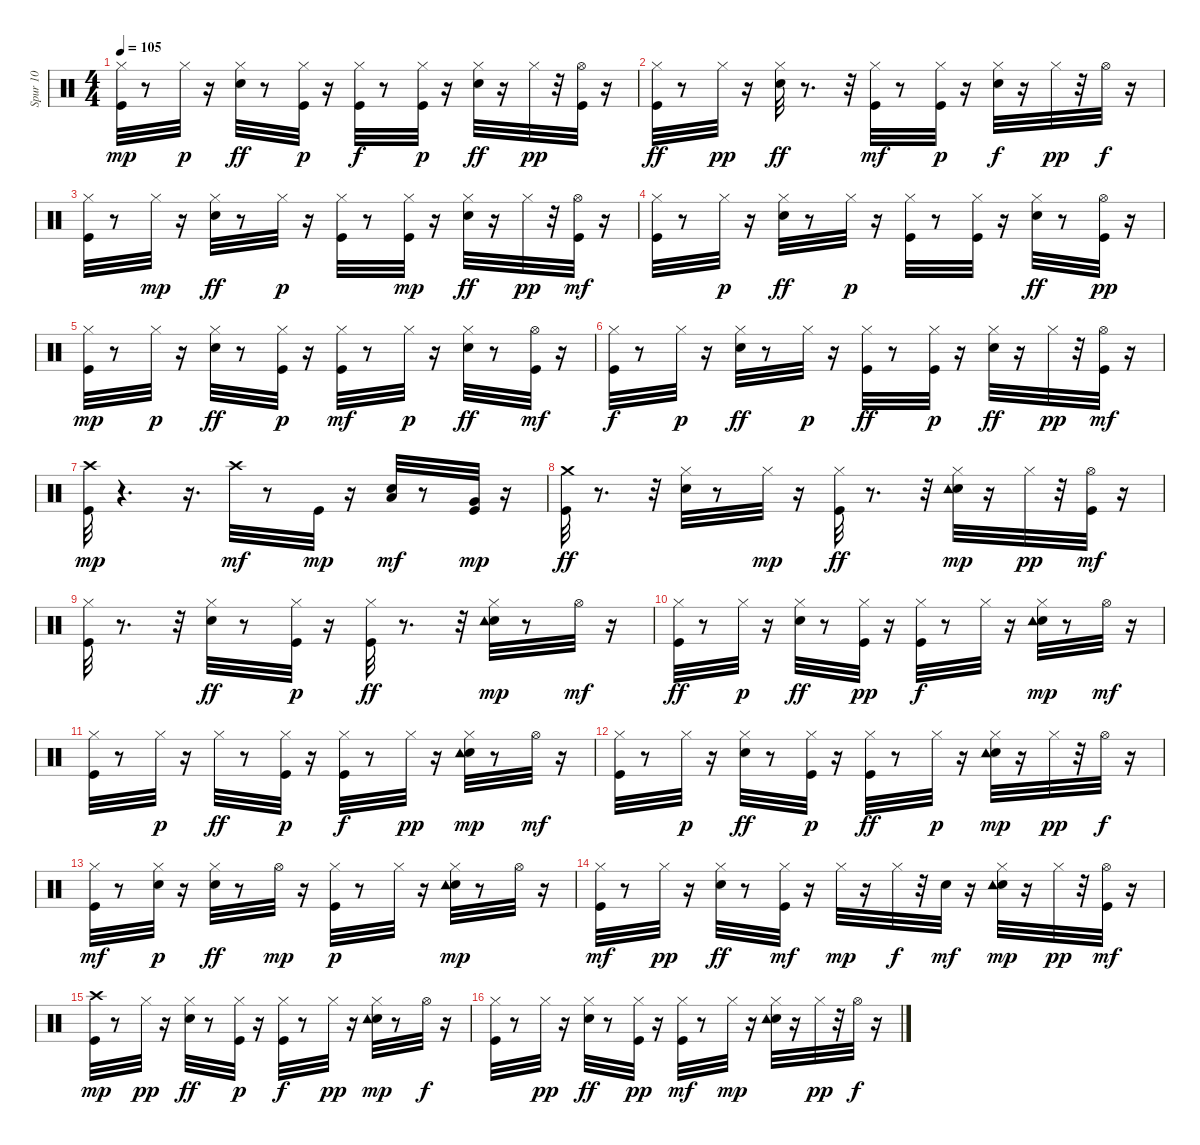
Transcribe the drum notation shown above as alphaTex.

\track ("Spur 10" "Spur 10") {instrument percussion}
\staff {score}
\articulation defaults
\ts (4 4)
\tempo 105
\clef neutral
\ks c
("Kick (hit)" "Hi-Hat (closed)").32{dy mp} r.8 "Hi-Hat (closed)".32{dy p} r.16 ("Snare (hit) 2" "Hi-Hat (closed)").32{dy ff} r.8 ("Kick (hit)" "Hi-Hat (closed)").32{dy p} r.16 ("Kick (hit)" "Hi-Hat (closed)").32{dy f} r.8 ("Kick (hit)" "Hi-Hat (closed)").32{dy p} r.16 ("Snare (hit) 2" "Hi-Hat (closed)").32{dy ff} r.16 "Hi-Hat (closed)".32{dy pp} r.32 ("Kick (hit)" "Hi-Hat (open)").32 r.16 |
("Kick (hit)" "Hi-Hat (closed)").32{dy ff} r.8 "Hi-Hat (closed)".32{dy pp} r.16 ("Snare (hit) 2" "Hi-Hat (closed)").32{dy ff} r.8{d} r.32 ("Kick (hit)" "Hi-Hat (closed)").32{dy mf} r.8 ("Kick (hit)" "Hi-Hat (closed)").32{dy p} r.16 ("Snare (hit) 2" "Hi-Hat (closed)").32{dy f} r.16 "Hi-Hat (closed)".32{dy pp} r.32 "Hi-Hat (open)".32{dy f} r.16 |
("Kick (hit)" "Hi-Hat (closed)").32 r.8 "Hi-Hat (closed)".32{dy mp} r.16 ("Snare (hit) 2" "Hi-Hat (closed)").32{dy ff} r.8 "Hi-Hat (closed)".32{dy p} r.16 ("Kick (hit)" "Hi-Hat (closed)").32 r.8 ("Kick (hit)" "Hi-Hat (closed)").32{dy mp} r.16 ("Snare (hit) 2" "Hi-Hat (closed)").32{dy ff} r.16 "Hi-Hat (closed)".32{dy pp} r.32 ("Kick (hit)" "Hi-Hat (open)").32{dy mf} r.16 |
("Kick (hit)" "Hi-Hat (closed)").32 r.8 "Hi-Hat (closed)".32{dy p} r.16 ("Snare (hit) 2" "Hi-Hat (closed)").32{dy ff} r.8 "Hi-Hat (closed)".32{dy p} r.16 ("Kick (hit)" "Hi-Hat (closed)").32 r.8 ("Kick (hit)" "Hi-Hat (closed)").32 r.16 ("Snare (hit) 2" "Hi-Hat (closed)").32{dy ff} r.8 ("Kick (hit)" "Hi-Hat (open)").32{dy pp} r.16 |
("Kick (hit)" "Hi-Hat (closed)").32{dy mp} r.8 "Hi-Hat (closed)".32{dy p} r.16 ("Snare (hit) 2" "Hi-Hat (closed)").32{dy ff} r.8 ("Kick (hit)" "Hi-Hat (closed)").32{dy p} r.16 ("Kick (hit)" "Hi-Hat (closed)").32{dy mf} r.8 "Hi-Hat (closed)".32{dy p} r.16 ("Snare (hit) 2" "Hi-Hat (closed)").32{dy ff} r.8 ("Kick (hit)" "Hi-Hat (open)").32{dy mf} r.16 |
("Kick (hit)" "Hi-Hat (closed)").32{dy f} r.8 "Hi-Hat (closed)".32{dy p} r.16 ("Snare (hit) 2" "Hi-Hat (closed)").32{dy ff} r.8 "Hi-Hat (closed)".32{dy p} r.16 ("Kick (hit)" "Hi-Hat (closed)").32{dy ff} r.8 ("Kick (hit)" "Hi-Hat (closed)").32{dy p} r.16 ("Snare (hit) 2" "Hi-Hat (closed)").32{dy ff} r.16 "Hi-Hat (closed)".32{dy pp} r.32 ("Kick (hit)" "Hi-Hat (open)").32{dy mf} r.16 |
("Kick (hit)" "Crash high (hit)").32{dy mp} r.4{d} r.16{d} "Crash high (hit)".32{dy mf} r.8 "Kick (hit)".32{dy mp} r.16 ("Snare (hit) 2" "Low Tom (hit)").32{dy mf} r.8 ("Kick (hit)" "Very Low Tom (hit)").32{dy mp} r.16 |
("Kick (hit)" "Crash medium (hit)").32{dy ff} r.8{d} r.32 ("Snare (hit) 2" "Hi-Hat (closed)").32 r.8 "Hi-Hat (closed)".32{dy mp} r.16 ("Kick (hit)" "Hi-Hat (closed)").32{dy ff} r.8{d} r.32 ("Snare (hit) 2" "Hi-Hat (closed)" "Tambourine (hit)").32{dy mp} r.16 "Hi-Hat (closed)".32{dy pp} r.32 ("Kick (hit)" "Hi-Hat (open)").32{dy mf} r.16 |
("Kick (hit)" "Hi-Hat (closed)").32 r.8{d} r.32 ("Snare (hit) 2" "Hi-Hat (closed)").32{dy ff} r.8 ("Kick (hit)" "Hi-Hat (closed)").32{dy p} r.16 ("Kick (hit)" "Hi-Hat (closed)").32{dy ff} r.8{d} r.32 ("Snare (hit) 2" "Hi-Hat (closed)" "Tambourine (hit)").32{dy mp} r.8 "Hi-Hat (open)".32{dy mf} r.16 |
("Kick (hit)" "Hi-Hat (closed)").32{dy ff} r.8 "Hi-Hat (closed)".32{dy p} r.16 ("Snare (hit) 2" "Hi-Hat (closed)").32{dy ff} r.8 ("Kick (hit)" "Hi-Hat (closed)").32{dy pp} r.16 ("Kick (hit)" "Hi-Hat (closed)").32{dy f} r.8 "Hi-Hat (closed)".32 r.16 ("Snare (hit) 2" "Hi-Hat (closed)" "Tambourine (hit)").32{dy mp} r.8 "Hi-Hat (open)".32{dy mf} r.16 |
("Kick (hit)" "Hi-Hat (closed)").32 r.8 "Hi-Hat (closed)".32{dy p} r.16 "Hi-Hat (closed)".32{dy ff} r.8 ("Kick (hit)" "Hi-Hat (closed)").32{dy p} r.16 ("Kick (hit)" "Hi-Hat (closed)").32{dy f} r.8 "Hi-Hat (closed)".32{dy pp} r.16 ("Snare (hit) 2" "Hi-Hat (closed)" "Tambourine (hit)").32{dy mp} r.8 "Hi-Hat (open)".32{dy mf} r.16 |
("Kick (hit)" "Hi-Hat (closed)").32 r.8 "Hi-Hat (closed)".32{dy p} r.16 ("Snare (hit) 2" "Hi-Hat (closed)").32{dy ff} r.8 ("Kick (hit)" "Hi-Hat (closed)").32{dy p} r.16 ("Kick (hit)" "Hi-Hat (closed)").32{dy ff} r.8 "Hi-Hat (closed)".32{dy p} r.16 ("Snare (hit) 2" "Hi-Hat (closed)" "Tambourine (hit)").32{dy mp} r.16 "Hi-Hat (closed)".32{dy pp} r.32 "Hi-Hat (open)".32{dy f} r.16 |
("Kick (hit)" "Hi-Hat (closed)").32{dy mf} r.8 ("Snare (hit) 2" "Hi-Hat (closed)").32{dy p} r.16 ("Snare (hit) 2" "Hi-Hat (closed)").32{dy ff} r.8 "Hi-Hat (open)".32{dy mp} r.16 ("Kick (hit)" "Hi-Hat (closed)").32{dy p} r.8 "Hi-Hat (closed)".32 r.16 ("Snare (hit) 2" "Hi-Hat (closed)" "Tambourine (hit)").32{dy mp} r.8 "Hi-Hat (open)".32 r.16 |
("Kick (hit)" "Hi-Hat (closed)").32{dy mf} r.8 "Hi-Hat (closed)".32{dy pp} r.16 ("Snare (hit) 2" "Hi-Hat (closed)").32{dy ff} r.8 ("Kick (hit)" "Hi-Hat (closed)").32{dy mf} r.16 "Hi-Hat (closed)".32{dy mp} r.16 "Hi-Hat (closed)".32{dy f} r.32 "Snare (hit) 2".32{dy mf} r.16 ("Snare (hit) 2" "Hi-Hat (closed)" "Tambourine (hit)").32{dy mp} r.16 "Hi-Hat (closed)".32{dy pp} r.32 ("Kick (hit)" "Hi-Hat (open)").32{dy mf} r.16 |
("Kick (hit)" "Crash high (hit)").32{dy mp} r.8 "Hi-Hat (closed)".32{dy pp} r.16 ("Snare (hit) 2" "Hi-Hat (closed)").32{dy ff} r.8 ("Kick (hit)" "Hi-Hat (closed)").32{dy p} r.16 ("Kick (hit)" "Hi-Hat (closed)").32{dy f} r.8 "Hi-Hat (closed)".32{dy pp} r.16 ("Snare (hit) 2" "Hi-Hat (closed)" "Tambourine (hit)").32{dy mp} r.8 "Hi-Hat (open)".32{dy f} r.16 |
("Kick (hit)" "Hi-Hat (closed)").32 r.8 "Hi-Hat (closed)".32{dy pp} r.16 ("Snare (hit) 2" "Hi-Hat (closed)").32{dy ff} r.8 ("Kick (hit)" "Hi-Hat (closed)").32{dy pp} r.16 ("Kick (hit)" "Hi-Hat (closed)").32{dy mf} r.8 "Hi-Hat (closed)".32{dy mp} r.16 ("Snare (hit) 2" "Hi-Hat (closed)" "Tambourine (hit)").32 r.16 "Hi-Hat (closed)".32{dy pp} r.32 "Hi-Hat (open)".32{dy f} r.16
